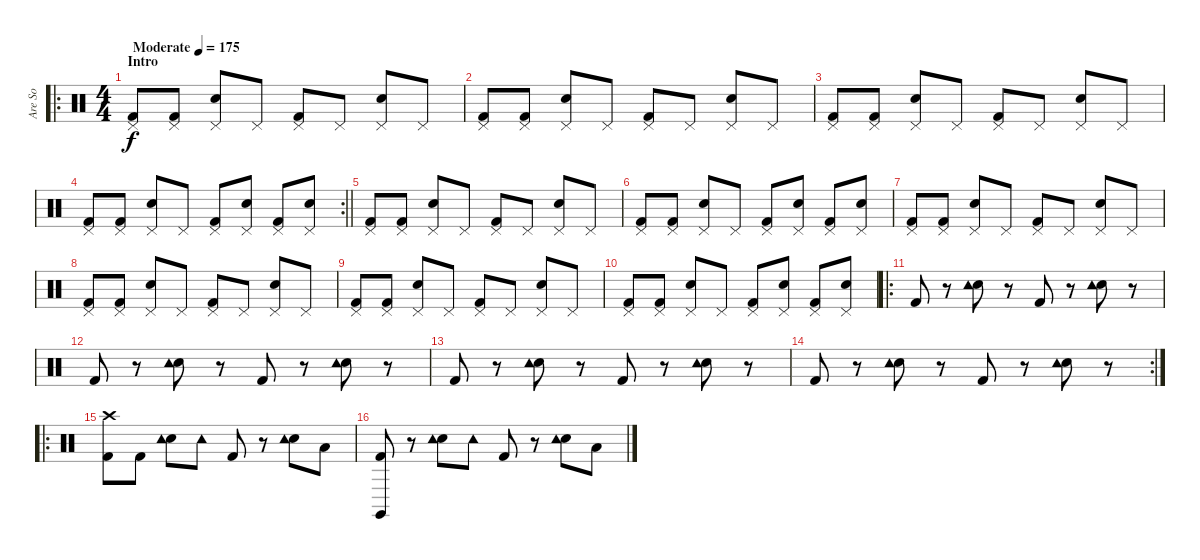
\track ("Are So" "Are So") {instrument percussion}
\staff {score}
\articulation defaults
\ro
\ts (4 4)
\section ("" "Intro")
\tempo (175 "Moderate")
\clef neutral
\ks c
("Pedal Hi-Hat (hit)" "Kick (hit) 2").8{dy f} ("Pedal Hi-Hat (hit)" "Kick (hit) 2").8 ("Pedal Hi-Hat (hit)" "Snare (hit) 2").8 "Pedal Hi-Hat (hit)".8 ("Pedal Hi-Hat (hit)" "Kick (hit) 2").8 "Pedal Hi-Hat (hit)".8 ("Pedal Hi-Hat (hit)" "Snare (hit) 2").8 "Pedal Hi-Hat (hit)".8 |
("Pedal Hi-Hat (hit)" "Kick (hit) 2").8 ("Pedal Hi-Hat (hit)" "Kick (hit) 2").8 ("Pedal Hi-Hat (hit)" "Snare (hit) 2").8 "Pedal Hi-Hat (hit)".8 ("Pedal Hi-Hat (hit)" "Kick (hit) 2").8 "Pedal Hi-Hat (hit)".8 ("Pedal Hi-Hat (hit)" "Snare (hit) 2").8 "Pedal Hi-Hat (hit)".8 |
("Pedal Hi-Hat (hit)" "Kick (hit) 2").8 ("Pedal Hi-Hat (hit)" "Kick (hit) 2").8 ("Pedal Hi-Hat (hit)" "Snare (hit) 2").8 "Pedal Hi-Hat (hit)".8 ("Pedal Hi-Hat (hit)" "Kick (hit) 2").8 "Pedal Hi-Hat (hit)".8 ("Pedal Hi-Hat (hit)" "Snare (hit) 2").8 "Pedal Hi-Hat (hit)".8 |
\rc 2
\barLineRight lightlight
("Pedal Hi-Hat (hit)" "Kick (hit) 2").8 ("Pedal Hi-Hat (hit)" "Kick (hit) 2").8 ("Pedal Hi-Hat (hit)" "Snare (hit) 2").8 "Pedal Hi-Hat (hit)".8 ("Pedal Hi-Hat (hit)" "Kick (hit) 2").8 ("Pedal Hi-Hat (hit)" "Snare (hit) 2").8 ("Pedal Hi-Hat (hit)" "Kick (hit) 2").8 ("Pedal Hi-Hat (hit)" "Snare (hit) 2").8 |
("Pedal Hi-Hat (hit)" "Kick (hit) 2").8 ("Pedal Hi-Hat (hit)" "Kick (hit) 2").8 ("Pedal Hi-Hat (hit)" "Snare (hit) 2").8 "Pedal Hi-Hat (hit)".8 ("Pedal Hi-Hat (hit)" "Kick (hit) 2").8 "Pedal Hi-Hat (hit)".8 ("Pedal Hi-Hat (hit)" "Snare (hit) 2").8 "Pedal Hi-Hat (hit)".8 |
("Pedal Hi-Hat (hit)" "Kick (hit) 2").8 ("Pedal Hi-Hat (hit)" "Kick (hit) 2").8 ("Pedal Hi-Hat (hit)" "Snare (hit) 2").8 "Pedal Hi-Hat (hit)".8 ("Pedal Hi-Hat (hit)" "Kick (hit) 2").8 ("Pedal Hi-Hat (hit)" "Snare (hit) 2").8 ("Pedal Hi-Hat (hit)" "Kick (hit) 2").8 ("Pedal Hi-Hat (hit)" "Snare (hit) 2").8 |
("Pedal Hi-Hat (hit)" "Kick (hit) 2").8 ("Pedal Hi-Hat (hit)" "Kick (hit) 2").8 ("Pedal Hi-Hat (hit)" "Snare (hit) 2").8 "Pedal Hi-Hat (hit)".8 ("Pedal Hi-Hat (hit)" "Kick (hit) 2").8 "Pedal Hi-Hat (hit)".8 ("Pedal Hi-Hat (hit)" "Snare (hit) 2").8 "Pedal Hi-Hat (hit)".8 |
("Pedal Hi-Hat (hit)" "Kick (hit) 2").8 ("Pedal Hi-Hat (hit)" "Kick (hit) 2").8 ("Pedal Hi-Hat (hit)" "Snare (hit) 2").8 "Pedal Hi-Hat (hit)".8 ("Pedal Hi-Hat (hit)" "Kick (hit) 2").8 "Pedal Hi-Hat (hit)".8 ("Pedal Hi-Hat (hit)" "Snare (hit) 2").8 "Pedal Hi-Hat (hit)".8 |
("Pedal Hi-Hat (hit)" "Kick (hit) 2").8 ("Pedal Hi-Hat (hit)" "Kick (hit) 2").8 ("Pedal Hi-Hat (hit)" "Snare (hit) 2").8 "Pedal Hi-Hat (hit)".8 ("Pedal Hi-Hat (hit)" "Kick (hit) 2").8 "Pedal Hi-Hat (hit)".8 ("Pedal Hi-Hat (hit)" "Snare (hit) 2").8 "Pedal Hi-Hat (hit)".8 |
("Pedal Hi-Hat (hit)" "Kick (hit) 2").8 ("Pedal Hi-Hat (hit)" "Kick (hit) 2").8 ("Pedal Hi-Hat (hit)" "Snare (hit) 2").8 "Pedal Hi-Hat (hit)".8 ("Pedal Hi-Hat (hit)" "Kick (hit) 2").8 ("Pedal Hi-Hat (hit)" "Snare (hit) 2").8 ("Pedal Hi-Hat (hit)" "Kick (hit) 2").8 ("Pedal Hi-Hat (hit)" "Snare (hit) 2").8 |
\ro "Kick (hit) 2".8
r.8 ("Snare (hit) 2" "Tambourine (hit)").8 r.8 "Kick (hit) 2".8 r.8 ("Snare (hit) 2" "Tambourine (hit)").8 r.8 |
"Kick (hit) 2".8 r.8 ("Snare (hit) 2" "Tambourine (hit)").8 r.8 "Kick (hit) 2".8 r.8 ("Snare (hit) 2" "Tambourine (hit)").8 r.8 |
"Kick (hit) 2".8 r.8 ("Snare (hit) 2" "Tambourine (hit)").8 r.8 "Kick (hit) 2".8 r.8 ("Snare (hit) 2" "Tambourine (hit)").8 r.8 |
\rc 2 "Kick (hit) 2".8
r.8 ("Snare (hit) 2" "Tambourine (hit)").8 r.8 "Kick (hit) 2".8 r.8 ("Snare (hit) 2" "Tambourine (hit)").8 r.8 |
\ro
("Crash high (hit)" "Kick (hit) 2").8 "Kick (hit) 2".8 ("Snare (hit) 2" "Tambourine (hit)").8 "Tambourine (hit)".8 "Kick (hit) 2".8 r.8 ("Snare (hit) 2" "Tambourine (hit)").8 "Low Tom (hit)".8 |
("Claves (hit)" "Kick (hit) 2").8 r.8 ("Snare (hit) 2" "Tambourine (hit)").8 "Tambourine (hit)".8 "Kick (hit) 2".8 r.8 ("Snare (hit) 2" "Tambourine (hit)").8 "Low Tom (hit)".8
